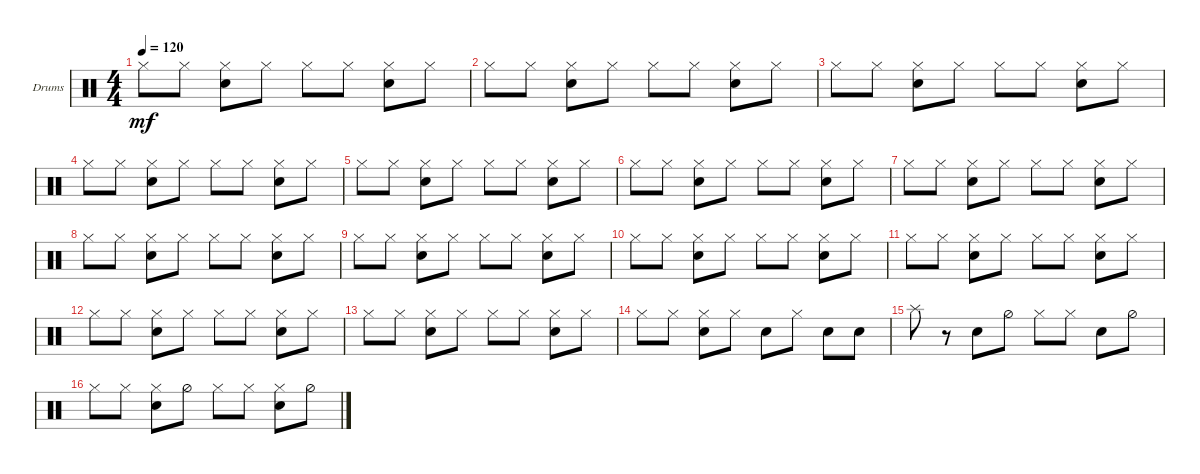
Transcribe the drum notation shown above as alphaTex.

\defaultSystemsLayout 4
\bracketExtendMode groupsimilarinstruments
\firstSystemTrackNameOrientation horizontal
\otherSystemsTrackNameOrientation horizontal
\track ("Drums" "Drums") {instrument percussion}
\staff {score}
\articulation defaults
\ts (4 4)
\tempo 120
\clef neutral
\scale
0.333333
\ks c "Hi-Hat (closed)".8{dy mf} "Hi-Hat (closed)".8
("Hi-Hat (closed)" "Snare (hit) 2").8 "Hi-Hat (closed)".8 "Hi-Hat (closed)".8 "Hi-Hat (closed)".8 ("Hi-Hat (closed)" "Snare (hit) 2").8 "Hi-Hat (closed)".8 |
\scale
0.333333 "Hi-Hat (closed)".8 "Hi-Hat (closed)".8 ("Hi-Hat (closed)" "Snare (hit) 2").8 "Hi-Hat (closed)".8 "Hi-Hat (closed)".8 "Hi-Hat (closed)".8 ("Hi-Hat (closed)" "Snare (hit) 2").8 "Hi-Hat (closed)".8 |
\scale
0.333333 "Hi-Hat (closed)".8 "Hi-Hat (closed)".8 ("Hi-Hat (closed)" "Snare (hit) 2").8 "Hi-Hat (closed)".8 "Hi-Hat (closed)".8 "Hi-Hat (closed)".8 ("Hi-Hat (closed)" "Snare (hit) 2").8 "Hi-Hat (closed)".8 |
\scale
0.333333 "Hi-Hat (closed)".8 "Hi-Hat (closed)".8 ("Hi-Hat (closed)" "Snare (hit) 2").8 "Hi-Hat (closed)".8 "Hi-Hat (closed)".8 "Hi-Hat (closed)".8 ("Hi-Hat (closed)" "Snare (hit) 2").8 "Hi-Hat (closed)".8 |
\scale
0.333333 "Hi-Hat (closed)".8 "Hi-Hat (closed)".8 ("Hi-Hat (closed)" "Snare (hit) 2").8 "Hi-Hat (closed)".8 "Hi-Hat (closed)".8 "Hi-Hat (closed)".8 ("Hi-Hat (closed)" "Snare (hit) 2").8 "Hi-Hat (closed)".8 |
\scale
0.333333 "Hi-Hat (closed)".8 "Hi-Hat (closed)".8 ("Hi-Hat (closed)" "Snare (hit) 2").8 "Hi-Hat (closed)".8 "Hi-Hat (closed)".8 "Hi-Hat (closed)".8 ("Hi-Hat (closed)" "Snare (hit) 2").8 "Hi-Hat (closed)".8 |
\scale
0.333333 "Hi-Hat (closed)".8 "Hi-Hat (closed)".8 ("Hi-Hat (closed)" "Snare (hit) 2").8 "Hi-Hat (closed)".8 "Hi-Hat (closed)".8 "Hi-Hat (closed)".8 ("Hi-Hat (closed)" "Snare (hit) 2").8 "Hi-Hat (closed)".8 |
\scale
0.333333 "Hi-Hat (closed)".8 "Hi-Hat (closed)".8 ("Hi-Hat (closed)" "Snare (hit) 2").8 "Hi-Hat (closed)".8 "Hi-Hat (closed)".8 "Hi-Hat (closed)".8 ("Hi-Hat (closed)" "Snare (hit) 2").8 "Hi-Hat (closed)".8 |
\scale
0.333333 "Hi-Hat (closed)".8 "Hi-Hat (closed)".8 ("Hi-Hat (closed)" "Snare (hit) 2").8 "Hi-Hat (closed)".8 "Hi-Hat (closed)".8 "Hi-Hat (closed)".8 ("Hi-Hat (closed)" "Snare (hit) 2").8 "Hi-Hat (closed)".8 |
\scale
0.333333 "Hi-Hat (closed)".8 "Hi-Hat (closed)".8 ("Hi-Hat (closed)" "Snare (hit) 2").8 "Hi-Hat (closed)".8 "Hi-Hat (closed)".8 "Hi-Hat (closed)".8 ("Hi-Hat (closed)" "Snare (hit) 2").8 "Hi-Hat (closed)".8 |
\scale
0.333333 "Hi-Hat (closed)".8 "Hi-Hat (closed)".8 ("Hi-Hat (closed)" "Snare (hit) 2").8 "Hi-Hat (closed)".8 "Hi-Hat (closed)".8 "Hi-Hat (closed)".8 ("Hi-Hat (closed)" "Snare (hit) 2").8 "Hi-Hat (closed)".8 |
\scale
0.333333 "Hi-Hat (closed)".8 "Hi-Hat (closed)".8 ("Hi-Hat (closed)" "Snare (hit) 2").8 "Hi-Hat (closed)".8 "Hi-Hat (closed)".8 "Hi-Hat (closed)".8 ("Hi-Hat (closed)" "Snare (hit) 2").8 "Hi-Hat (closed)".8 |
\scale
0.333333 "Hi-Hat (closed)".8 "Hi-Hat (closed)".8 ("Hi-Hat (closed)" "Snare (hit) 2").8 "Hi-Hat (closed)".8 "Hi-Hat (closed)".8 "Hi-Hat (closed)".8 ("Hi-Hat (closed)" "Snare (hit) 2").8 "Hi-Hat (closed)".8 |
\scale
0.333333 "Hi-Hat (closed)".8 "Hi-Hat (closed)".8 ("Hi-Hat (closed)" "Snare (hit) 2").8 "Hi-Hat (closed)".8 "Snare (hit) 2".8 "Hi-Hat (closed)".8 "Snare (hit) 2".8 "Snare (hit) 2".8 |
\scale
0.333333 "Splash (hit)".8 r.8 "Snare (hit) 2".8 "Hi-Hat (half)".8 "Hi-Hat (closed)".8 "Hi-Hat (closed)".8 "Snare (hit) 2".8 "Hi-Hat (half)".8 |
\scale
0.333333 "Hi-Hat (closed)".8 "Hi-Hat (closed)".8 ("Snare (hit) 2" "Hi-Hat (closed)").8 "Hi-Hat (half)".8 "Hi-Hat (closed)".8 "Hi-Hat (closed)".8 ("Snare (hit) 2" "Hi-Hat (closed)").8 "Hi-Hat (half)".8
